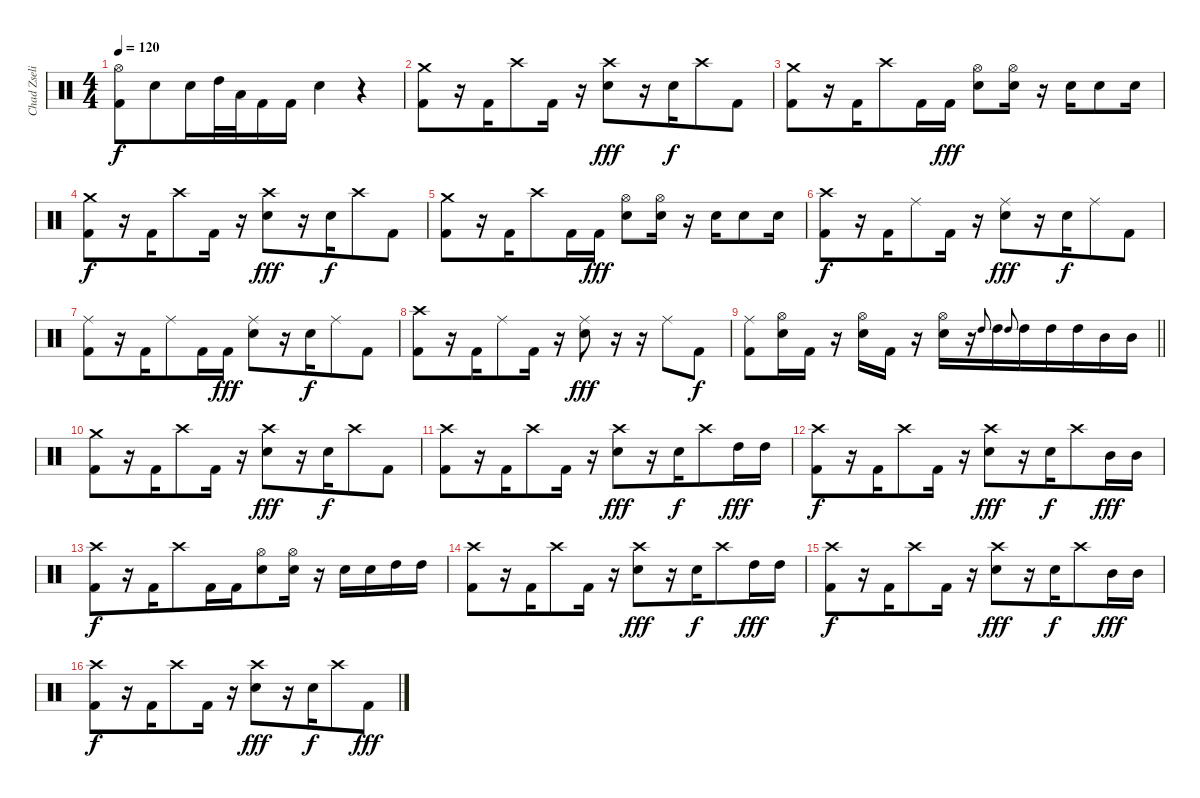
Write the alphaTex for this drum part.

\track ("Chad Zseliga (Drums)" "Chad Zseli") {instrument percussion}
\staff {score}
\articulation defaults
\ts (4 4)
\tempo 120
\clef neutral
\ks c
("Hi-Hat (open)" "Kick (hit) 2").8{dy f} "Snare (hit) 2".8{beam merge} "Snare (hit) 2".16 "High Tom (hit)".32 "Low Floor Tom (hit)".32 "Kick (hit) 2".16 "Kick (hit) 2".16 "Snare (hit) 2".4 r.4 |
("Crash medium (hit)" "Kick (hit) 2").8 r.16 "Kick (hit) 2".16{beam merge} "Crash high (hit)".8 "Kick (hit) 2".16 r.16 ("Crash high (hit)" "Snare (hit) 2").8{dy fff} r.16 "Snare (hit) 2".16{dy f beam merge} "Crash high (hit)".8 "Kick (hit) 2".8 |
("Crash medium (hit)" "Kick (hit) 2").8 r.16 "Kick (hit) 2".16{beam merge} "Crash high (hit)".8 "Kick (hit) 2".16 "Kick (hit) 2".16{dy fff} ("Hi-Hat (open)" "Snare (hit) 2").8 ("Hi-Hat (open)" "Snare (hit) 2").16 r.16{beam merge} "Snare (hit) 2".16 "Snare (hit) 2".8 "Snare (hit) 2".16 |
("Crash medium (hit)" "Kick (hit) 2").8{dy f} r.16 "Kick (hit) 2".16{beam merge} "Crash high (hit)".8 "Kick (hit) 2".16 r.16 ("Crash high (hit)" "Snare (hit) 2").8{dy fff} r.16 "Snare (hit) 2".16{dy f beam merge} "Crash high (hit)".8 "Kick (hit) 2".8 |
("Crash medium (hit)" "Kick (hit) 2").8 r.16 "Kick (hit) 2".16{beam merge} "Crash high (hit)".8 "Kick (hit) 2".16 "Kick (hit) 2".16{dy fff} ("Hi-Hat (open)" "Snare (hit) 2").8 ("Hi-Hat (open)" "Snare (hit) 2").16 r.16{beam merge} "Snare (hit) 2".16 "Snare (hit) 2".8 "Snare (hit) 2".16 |
("Crash high (hit)" "Kick (hit) 2").8{dy f} r.16 "Kick (hit) 2".16{beam merge} "Ride (middle)".8 "Kick (hit) 2".16 r.16 ("Ride (middle)" "Snare (hit) 2").8{dy fff} r.16 "Snare (hit) 2".16{dy f beam merge} "Ride (middle)".8 "Kick (hit) 2".8 |
("Ride (middle)" "Kick (hit) 2").8 r.16 "Kick (hit) 2".16{beam merge} "Ride (middle)".8 "Kick (hit) 2".16 "Kick (hit) 2".16{dy fff} ("Ride (middle)" "Snare (hit) 2").8 r.16 "Snare (hit) 2".16{dy f beam merge} "Ride (middle)".8 "Kick (hit) 2".8 |
("Crash high (hit)" "Kick (hit) 2").8 r.16 "Kick (hit) 2".16{beam merge} "Ride (middle)".8 "Kick (hit) 2".16 r.16 ("Ride (middle)" "Snare (hit) 2").8{dy fff} r.16 r.16 "Ride (middle)".8 "Kick (hit) 2".8{dy f} |
\barLineRight lightlight
("Ride (middle)" "Kick (hit) 2").8 ("Hi-Hat (open)" "Snare (hit) 2").16 "Kick (hit) 2".16 r.16 ("Hi-Hat (open)" "Snare (hit) 2").16 "Kick (hit) 2".16 r.16 ("Hi-Hat (open)" "Snare (hit) 2").16 r.16 "High Tom (hit)".8{gr onbeat} "High Tom (hit)".16 "High Tom (hit)".8{gr onbeat} "High Tom (hit)".16{beam merge} "High Tom (hit)".16 "High Tom (hit)".16 "Mid Tom (hit)".16 "Mid Tom (hit)".16 |
("Crash medium (hit)" "Kick (hit) 2").8 r.16 "Kick (hit) 2".16{beam merge} "Crash high (hit)".8 "Kick (hit) 2".16 r.16 ("Crash high (hit)" "Snare (hit) 2").8{dy fff} r.16 "Snare (hit) 2".16{dy f beam merge} "Crash high (hit)".8 "Kick (hit) 2".8 |
("Crash high (hit)" "Kick (hit) 2").8 r.16 "Kick (hit) 2".16{beam merge} "Crash high (hit)".8 "Kick (hit) 2".16 r.16 ("Crash high (hit)" "Snare (hit) 2").8{dy fff} r.16 "Snare (hit) 2".16{dy f beam merge} "Crash high (hit)".8 "High Tom (hit)".16{dy fff} "High Tom (hit)".16 |
("Crash high (hit)" "Kick (hit) 2").8{dy f} r.16 "Kick (hit) 2".16{beam merge} "Crash high (hit)".8 "Kick (hit) 2".16 r.16 ("Crash high (hit)" "Snare (hit) 2").8{dy fff} r.16 "Snare (hit) 2".16{dy f beam merge} "Crash high (hit)".8 "Mid Tom (hit)".16{dy fff} "Mid Tom (hit)".16 |
("Crash high (hit)" "Kick (hit) 2").8{dy f} r.16 "Kick (hit) 2".16{beam merge} "Crash high (hit)".8 "Kick (hit) 2".16 "Kick (hit) 2".16{beam merge} ("Hi-Hat (open)" "Snare (hit) 2").8 ("Hi-Hat (open)" "Snare (hit) 2").16 r.16 "Snare (hit) 2".16 "Snare (hit) 2".16 "High Tom (hit)".16 "High Tom (hit)".16 |
("Crash high (hit)" "Kick (hit) 2").8 r.16 "Kick (hit) 2".16{beam merge} "Crash high (hit)".8 "Kick (hit) 2".16 r.16 ("Crash high (hit)" "Snare (hit) 2").8{dy fff} r.16 "Snare (hit) 2".16{dy f beam merge} "Crash high (hit)".8 "High Tom (hit)".16{dy fff} "High Tom (hit)".16 |
("Crash high (hit)" "Kick (hit) 2").8{dy f} r.16 "Kick (hit) 2".16{beam merge} "Crash high (hit)".8 "Kick (hit) 2".16 r.16 ("Crash high (hit)" "Snare (hit) 2").8{dy fff} r.16 "Snare (hit) 2".16{dy f beam merge} "Crash high (hit)".8 "Mid Tom (hit)".16{dy fff} "Mid Tom (hit)".16 |
("Crash high (hit)" "Kick (hit) 2").8{dy f} r.16 "Kick (hit) 2".16{beam merge} "Crash high (hit)".8 "Kick (hit) 2".16 r.16 ("Crash high (hit)" "Snare (hit) 2").8{dy fff} r.16 "Snare (hit) 2".16{dy f beam merge} "Crash high (hit)".8 "Kick (hit) 2".8{dy fff}
